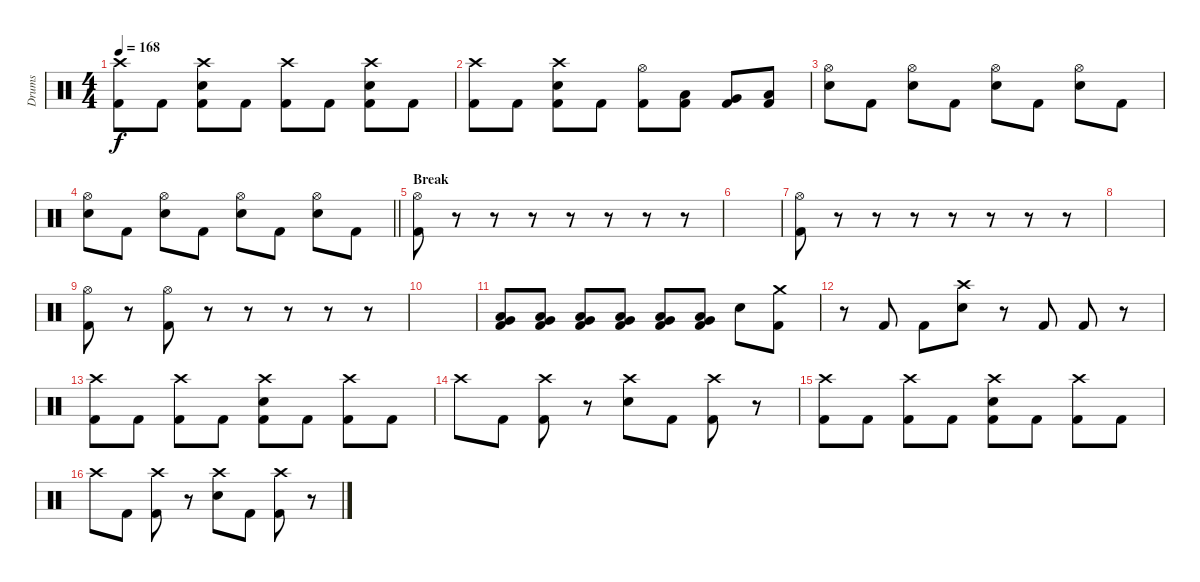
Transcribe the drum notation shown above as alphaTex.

\track ("Drums" "Drums") {instrument percussion}
\staff {score}
\articulation defaults
\ts (4 4)
\tempo 168
\clef neutral
\ks c
("Crash high (hit)" "Kick (hit) 2").8{dy f} "Kick (hit) 2".8 ("Crash high (hit)" "Electric Snare (hit)" "Kick (hit) 2").8 "Kick (hit) 2".8 ("Crash high (hit)" "Kick (hit) 2").8 "Kick (hit) 2".8 ("Crash high (hit)" "Electric Snare (hit)" "Kick (hit) 2").8 "Kick (hit) 2".8 |
("Crash high (hit)" "Kick (hit) 2").8 "Kick (hit) 2".8 ("Crash high (hit)" "Electric Snare (hit)" "Kick (hit) 2").8 "Kick (hit) 2".8 ("Hi-Hat (open)" "Kick (hit) 2").8 ("Low Tom (hit)" "Kick (hit) 2").8 ("Very Low Tom (hit)" "Kick (hit) 2").8 ("Low Floor Tom (hit)" "Kick (hit) 2").8 |
("Hi-Hat (open)" "Electric Snare (hit)").8 "Kick (hit) 2".8 ("Hi-Hat (open)" "Electric Snare (hit)").8 "Kick (hit) 2".8 ("Hi-Hat (open)" "Electric Snare (hit)").8 "Kick (hit) 2".8 ("Hi-Hat (open)" "Electric Snare (hit)").8 "Kick (hit) 2".8 |
\barLineRight lightlight
("Hi-Hat (open)" "Electric Snare (hit)").8 "Kick (hit) 2".8 ("Hi-Hat (open)" "Electric Snare (hit)").8 "Kick (hit) 2".8 ("Hi-Hat (open)" "Electric Snare (hit)").8 "Kick (hit) 2".8 ("Hi-Hat (open)" "Electric Snare (hit)").8 "Kick (hit) 2".8 |
\section ("" "Break")
("Hi-Hat (open)" "Kick (hit) 2").8 r.8 r.8 r.8 r.8 r.8 r.8 r.8 |
|
("Hi-Hat (open)" "Kick (hit) 2").8 r.8 r.8 r.8 r.8 r.8 r.8 r.8 |
|
("Hi-Hat (open)" "Kick (hit) 2").8 r.8 ("Hi-Hat (open)" "Kick (hit) 2").8 r.8 r.8 r.8 r.8 r.8 |
|
("Low Floor Tom (hit)" "Very Low Tom (hit)" "Kick (hit) 2").8 ("Low Floor Tom (hit)" "Very Low Tom (hit)" "Kick (hit) 2").8 ("Low Floor Tom (hit)" "Very Low Tom (hit)" "Kick (hit) 2").8 ("Low Floor Tom (hit)" "Very Low Tom (hit)" "Kick (hit) 2").8 ("Low Floor Tom (hit)" "Very Low Tom (hit)" "Kick (hit) 2").8 ("Low Floor Tom (hit)" "Very Low Tom (hit)" "Kick (hit) 2").8 "Electric Snare (hit)".8 ("Crash medium (hit)" "Kick (hit) 2").8 |
r.8 "Kick (hit) 2".8 "Kick (hit) 2".8 ("Crash high (hit)" "Electric Snare (hit)").8 r.8 "Kick (hit) 2".8 "Kick (hit) 2".8 r.8 |
("Crash high (hit)" "Kick (hit) 2").8 "Kick (hit) 2".8 ("Crash high (hit)" "Kick (hit) 2").8 "Kick (hit) 2".8 ("Crash high (hit)" "Electric Snare (hit)" "Kick (hit) 2").8 "Kick (hit) 2".8 ("Crash high (hit)" "Kick (hit) 2").8 "Kick (hit) 2".8 |
"Crash high (hit)".8 "Kick (hit) 2".8 ("Crash high (hit)" "Kick (hit) 2").8 r.8 ("Crash high (hit)" "Electric Snare (hit)").8 "Kick (hit) 2".8 ("Crash high (hit)" "Kick (hit) 2").8 r.8 |
("Crash high (hit)" "Kick (hit) 2").8 "Kick (hit) 2".8 ("Crash high (hit)" "Kick (hit) 2").8 "Kick (hit) 2".8 ("Crash high (hit)" "Electric Snare (hit)" "Kick (hit) 2").8 "Kick (hit) 2".8 ("Crash high (hit)" "Kick (hit) 2").8 "Kick (hit) 2".8 |
"Crash high (hit)".8 "Kick (hit) 2".8 ("Crash high (hit)" "Kick (hit) 2").8 r.8 ("Crash high (hit)" "Electric Snare (hit)").8 "Kick (hit) 2".8 ("Crash high (hit)" "Kick (hit) 2").8 r.8
